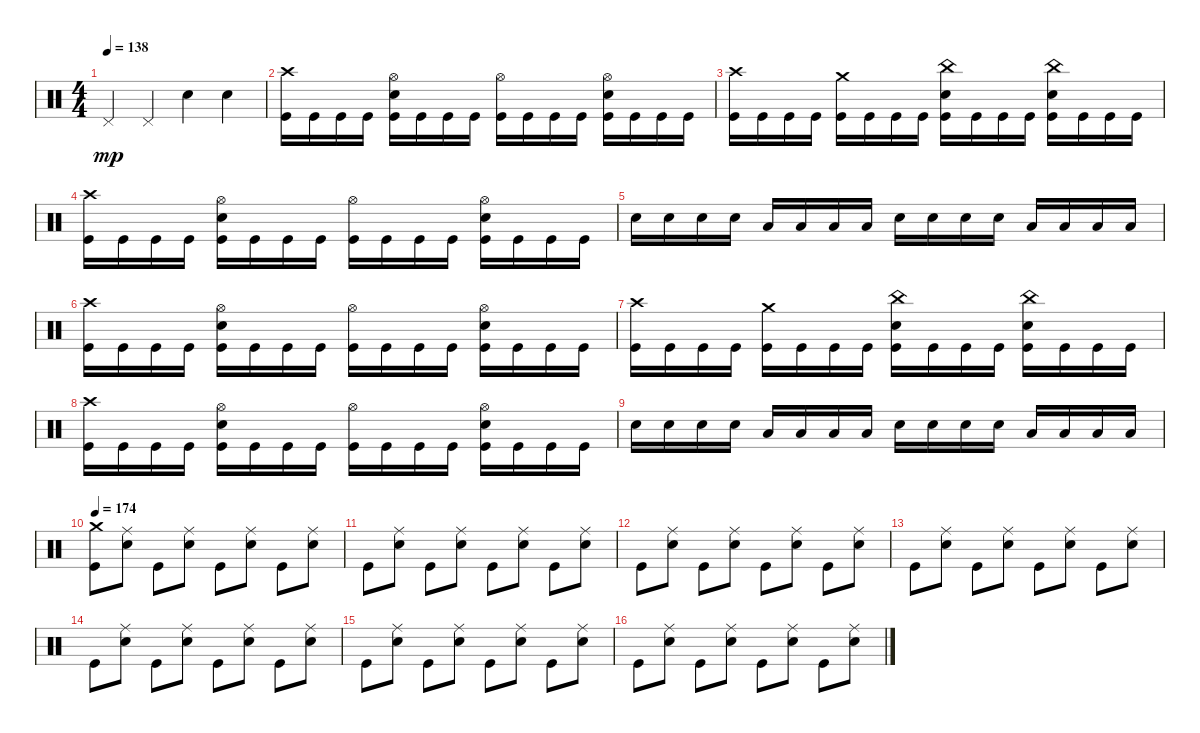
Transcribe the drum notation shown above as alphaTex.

\track "" {instrument percussion}
\staff {score}
\articulation defaults
\ts (4 4)
\tempo 138
\clef neutral
\ks c "Pedal Hi-Hat (hit)".4{dy mp} "Pedal Hi-Hat (hit)".4 "Snare (hit) 2".4 "Snare (hit) 2".4
|
("Kick (hit)" "Crash high (hit)").16 "Kick (hit)".16 "Kick (hit)".16 "Kick (hit)".16 ("Kick (hit)" "Hi-Hat (open)" "Snare (hit) 2").16 "Kick (hit)".16 "Kick (hit)".16 "Kick (hit)".16 ("Kick (hit)" "Hi-Hat (open)").16 "Kick (hit)".16 "Kick (hit)".16 "Kick (hit)".16 ("Kick (hit)" "Snare (hit) 2" "Hi-Hat (open)").16 "Kick (hit)".16 "Kick (hit)".16 "Kick (hit)".16 |
("Kick (hit)" "Crash high (hit)").16 "Kick (hit)".16 "Kick (hit)".16 "Kick (hit)".16 ("Kick (hit)" "Crash medium (hit)").16 "Kick (hit)".16 "Kick (hit)".16 "Kick (hit)".16 ("Kick (hit)" "Snare (hit) 2" "China (hit)").16 "Kick (hit)".16 "Kick (hit)".16 "Kick (hit)".16 ("Kick (hit)" "Snare (hit) 2" "China (hit)").16 "Kick (hit)".16 "Kick (hit)".16 "Kick (hit)".16 |
("Crash high (hit)" "Kick (hit)").16 "Kick (hit)".16 "Kick (hit)".16 "Kick (hit)".16 ("Kick (hit)" "Hi-Hat (open)" "Snare (hit) 2").16 "Kick (hit)".16 "Kick (hit)".16 "Kick (hit)".16 ("Kick (hit)" "Hi-Hat (open)").16 "Kick (hit)".16 "Kick (hit)".16 "Kick (hit)".16 ("Kick (hit)" "Snare (hit) 2" "Hi-Hat (open)").16 "Kick (hit)".16 "Kick (hit)".16 "Kick (hit)".16 |
"Snare (hit) 2".16 "Snare (hit) 2".16 "Snare (hit) 2".16 "Snare (hit) 2".16 "Low Tom (hit)".16 "Low Tom (hit)".16 "Low Tom (hit)".16 "Low Tom (hit)".16 "Snare (hit) 2".16 "Snare (hit) 2".16 "Snare (hit) 2".16 "Snare (hit) 2".16 "Low Tom (hit)".16 "Low Tom (hit)".16 "Low Tom (hit)".16 "Low Tom (hit)".16 |
("Kick (hit)" "Crash high (hit)").16 "Kick (hit)".16 "Kick (hit)".16 "Kick (hit)".16 ("Kick (hit)" "Hi-Hat (open)" "Snare (hit) 2").16 "Kick (hit)".16 "Kick (hit)".16 "Kick (hit)".16 ("Kick (hit)" "Hi-Hat (open)").16 "Kick (hit)".16 "Kick (hit)".16 "Kick (hit)".16 ("Kick (hit)" "Snare (hit) 2" "Hi-Hat (open)").16 "Kick (hit)".16 "Kick (hit)".16 "Kick (hit)".16 |
("Kick (hit)" "Crash high (hit)").16 "Kick (hit)".16 "Kick (hit)".16 "Kick (hit)".16 ("Kick (hit)" "Crash medium (hit)").16 "Kick (hit)".16 "Kick (hit)".16 "Kick (hit)".16 ("Kick (hit)" "Snare (hit) 2" "China (hit)").16 "Kick (hit)".16 "Kick (hit)".16 "Kick (hit)".16 ("Kick (hit)" "Snare (hit) 2" "China (hit)").16 "Kick (hit)".16 "Kick (hit)".16 "Kick (hit)".16 |
("Crash high (hit)" "Kick (hit)").16 "Kick (hit)".16 "Kick (hit)".16 "Kick (hit)".16 ("Kick (hit)" "Hi-Hat (open)" "Snare (hit) 2").16 "Kick (hit)".16 "Kick (hit)".16 "Kick (hit)".16 ("Kick (hit)" "Hi-Hat (open)").16 "Kick (hit)".16 "Kick (hit)".16 "Kick (hit)".16 ("Kick (hit)" "Snare (hit) 2" "Hi-Hat (open)").16 "Kick (hit)".16 "Kick (hit)".16 "Kick (hit)".16 |
"Snare (hit) 2".16 "Snare (hit) 2".16 "Snare (hit) 2".16 "Snare (hit) 2".16 "Low Tom (hit)".16 "Low Tom (hit)".16 "Low Tom (hit)".16 "Low Tom (hit)".16 "Snare (hit) 2".16 "Snare (hit) 2".16 "Snare (hit) 2".16 "Snare (hit) 2".16 "Low Tom (hit)".16 "Low Tom (hit)".16 "Low Tom (hit)".16 "Low Tom (hit)".16 |
\tempo 174
("Kick (hit)" "Crash medium (hit)").8 ("Snare (hit) 2" "Ride (middle)").8 "Kick (hit)".8 ("Snare (hit) 2" "Ride (middle)").8 "Kick (hit)".8 ("Snare (hit) 2" "Ride (middle)").8 "Kick (hit)".8 ("Snare (hit) 2" "Ride (middle)").8 |
"Kick (hit)".8 ("Snare (hit) 2" "Ride (middle)").8 "Kick (hit)".8 ("Snare (hit) 2" "Ride (middle)").8 "Kick (hit)".8 ("Snare (hit) 2" "Ride (middle)").8 "Kick (hit)".8 ("Snare (hit) 2" "Ride (middle)").8 |
"Kick (hit)".8 ("Snare (hit) 2" "Ride (middle)").8 "Kick (hit)".8 ("Snare (hit) 2" "Ride (middle)").8 "Kick (hit)".8 ("Snare (hit) 2" "Ride (middle)").8 "Kick (hit)".8 ("Snare (hit) 2" "Ride (middle)").8 |
"Kick (hit)".8 ("Snare (hit) 2" "Ride (middle)").8 "Kick (hit)".8 ("Snare (hit) 2" "Ride (middle)").8 "Kick (hit)".8 ("Snare (hit) 2" "Ride (middle)").8 "Kick (hit)".8 ("Snare (hit) 2" "Ride (middle)").8 |
"Kick (hit)".8 ("Snare (hit) 2" "Ride (middle)").8 "Kick (hit)".8 ("Snare (hit) 2" "Ride (middle)").8 "Kick (hit)".8 ("Snare (hit) 2" "Ride (middle)").8 "Kick (hit)".8 ("Snare (hit) 2" "Ride (middle)").8 |
"Kick (hit)".8 ("Snare (hit) 2" "Ride (middle)").8 "Kick (hit)".8 ("Snare (hit) 2" "Ride (middle)").8 "Kick (hit)".8 ("Snare (hit) 2" "Ride (middle)").8 "Kick (hit)".8 ("Snare (hit) 2" "Ride (middle)").8 |
"Kick (hit)".8 ("Snare (hit) 2" "Ride (middle)").8 "Kick (hit)".8 ("Snare (hit) 2" "Ride (middle)").8 "Kick (hit)".8 ("Snare (hit) 2" "Ride (middle)").8 "Kick (hit)".8 ("Snare (hit) 2" "Ride (middle)").8
